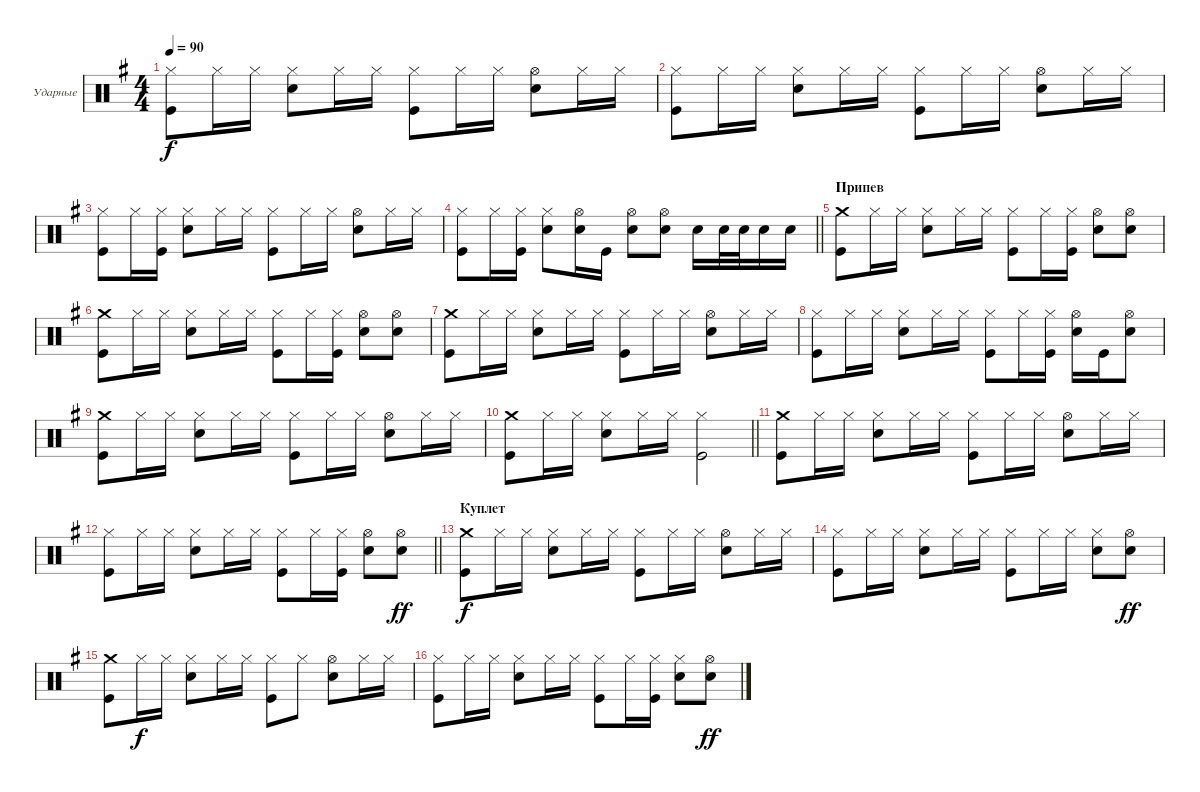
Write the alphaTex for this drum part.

\bracketExtendMode groupsimilarinstruments
\firstSystemTrackNameOrientation horizontal
\otherSystemsTrackNameOrientation horizontal
\track ("Александр Львов" "Ударные") {instrument percussion}
\staff {score}
\articulation defaults
\ts (4 4)
\tempo 90
\clef neutral
\ks eminor
("Hi-Hat (closed)" "Kick (hit)").8{dy f} "Hi-Hat (closed)".16 "Hi-Hat (closed)".16 ("Hi-Hat (closed)" "Snare (hit) 2").8 "Hi-Hat (closed)".16 "Hi-Hat (closed)".16 ("Hi-Hat (closed)" "Kick (hit)").8 "Hi-Hat (closed)".16 "Hi-Hat (closed)".16 ("Snare (hit) 2" "Hi-Hat (open)").8 "Hi-Hat (closed)".16 "Hi-Hat (closed)".16 |
("Hi-Hat (closed)" "Kick (hit)").8 "Hi-Hat (closed)".16 "Hi-Hat (closed)".16 ("Hi-Hat (closed)" "Snare (hit) 2").8 "Hi-Hat (closed)".16 "Hi-Hat (closed)".16 ("Hi-Hat (closed)" "Kick (hit)").8 "Hi-Hat (closed)".16 "Hi-Hat (closed)".16 ("Snare (hit) 2" "Hi-Hat (open)").8 "Hi-Hat (closed)".16 "Hi-Hat (closed)".16 |
("Hi-Hat (closed)" "Kick (hit)").8 "Hi-Hat (closed)".16 ("Hi-Hat (closed)" "Kick (hit)").16 ("Hi-Hat (closed)" "Snare (hit) 2").8 "Hi-Hat (closed)".16 "Hi-Hat (closed)".16 ("Hi-Hat (closed)" "Kick (hit)").8 "Hi-Hat (closed)".16 "Hi-Hat (closed)".16 ("Snare (hit) 2" "Hi-Hat (open)").8 "Hi-Hat (closed)".16 "Hi-Hat (closed)".16 |
\barLineRight lightlight
("Hi-Hat (closed)" "Kick (hit)").8 "Hi-Hat (closed)".16 ("Hi-Hat (closed)" "Kick (hit)").16 ("Hi-Hat (closed)" "Snare (hit) 2").8 ("Snare (hit) 2" "Hi-Hat (open)").16 "Kick (hit)".16 ("Hi-Hat (open)" "Snare (hit) 2").8 ("Hi-Hat (open)" "Snare (hit) 2").8 "Snare (hit) 2".16 "Snare (hit) 2".32 "Snare (hit) 2".32 "Snare (hit) 2".16 "Snare (hit) 2".16 |
\section ("" "Припев")
("Crash medium (hit)" "Kick (hit)").8 "Hi-Hat (closed)".16 "Hi-Hat (closed)".16 ("Hi-Hat (closed)" "Snare (hit) 2").8 "Hi-Hat (closed)".16 "Hi-Hat (closed)".16 ("Hi-Hat (closed)" "Kick (hit)").8 "Hi-Hat (closed)".16 ("Hi-Hat (closed)" "Kick (hit)").16 ("Snare (hit) 2" "Hi-Hat (open)").8 ("Hi-Hat (open)" "Snare (hit) 2").8 |
("Crash medium (hit)" "Kick (hit)").8 "Hi-Hat (closed)".16 "Hi-Hat (closed)".16 ("Hi-Hat (closed)" "Snare (hit) 2").8 "Hi-Hat (closed)".16 "Hi-Hat (closed)".16 ("Hi-Hat (closed)" "Kick (hit)").8 "Hi-Hat (closed)".16 ("Hi-Hat (closed)" "Kick (hit)").16 ("Snare (hit) 2" "Hi-Hat (open)").8 ("Hi-Hat (open)" "Snare (hit) 2").8 |
("Crash medium (hit)" "Kick (hit)").8 "Hi-Hat (closed)".16 "Hi-Hat (closed)".16 ("Hi-Hat (closed)" "Snare (hit) 2").8 "Hi-Hat (closed)".16 "Hi-Hat (closed)".16 ("Hi-Hat (closed)" "Kick (hit)").8 "Hi-Hat (closed)".16 "Hi-Hat (closed)".16 ("Snare (hit) 2" "Hi-Hat (open)").8 "Hi-Hat (closed)".16 "Hi-Hat (closed)".16 |
("Hi-Hat (closed)" "Kick (hit)").8 "Hi-Hat (closed)".16 "Hi-Hat (closed)".16 ("Hi-Hat (closed)" "Snare (hit) 2").8 "Hi-Hat (closed)".16 "Hi-Hat (closed)".16 ("Hi-Hat (closed)" "Kick (hit)").8 "Hi-Hat (closed)".16 ("Hi-Hat (closed)" "Kick (hit)").16 ("Snare (hit) 2" "Hi-Hat (open)").16 "Kick (hit)".16 ("Snare (hit) 2" "Hi-Hat (open)").8 |
("Crash medium (hit)" "Kick (hit)").8 "Hi-Hat (closed)".16 "Hi-Hat (closed)".16 ("Hi-Hat (closed)" "Snare (hit) 2").8 "Hi-Hat (closed)".16 "Hi-Hat (closed)".16 ("Hi-Hat (closed)" "Kick (hit)").8 "Hi-Hat (closed)".16 "Hi-Hat (closed)".16 ("Snare (hit) 2" "Hi-Hat (open)").8 "Hi-Hat (closed)".16 "Hi-Hat (closed)".16 |
\barLineRight lightlight
("Crash medium (hit)" "Kick (hit)").8 "Hi-Hat (closed)".16 "Hi-Hat (closed)".16 ("Hi-Hat (closed)" "Snare (hit) 2").8 "Hi-Hat (closed)".16 "Hi-Hat (closed)".16 ("Hi-Hat (closed)" "Kick (hit)").2 |
("Crash medium (hit)" "Kick (hit)").8 "Hi-Hat (closed)".16 "Hi-Hat (closed)".16 ("Hi-Hat (closed)" "Snare (hit) 2").8 "Hi-Hat (closed)".16 "Hi-Hat (closed)".16 ("Hi-Hat (closed)" "Kick (hit)").8 "Hi-Hat (closed)".16 "Hi-Hat (closed)".16 ("Snare (hit) 2" "Hi-Hat (open)").8 "Hi-Hat (closed)".16 "Hi-Hat (closed)".16 |
\barLineRight lightlight
("Hi-Hat (closed)" "Kick (hit)").8 "Hi-Hat (closed)".16 "Hi-Hat (closed)".16 ("Hi-Hat (closed)" "Snare (hit) 2").8 "Hi-Hat (closed)".16 "Hi-Hat (closed)".16 ("Hi-Hat (closed)" "Kick (hit)").8 "Hi-Hat (closed)".16 ("Hi-Hat (closed)" "Kick (hit)").16 ("Snare (hit) 2" "Hi-Hat (open)").8 ("Snare (hit) 2" "Hi-Hat (open)").8{dy ff} |
\section ("" "Куплет")
("Crash medium (hit)" "Kick (hit)").8{dy f} "Hi-Hat (closed)".16 "Hi-Hat (closed)".16 ("Hi-Hat (closed)" "Snare (hit) 2").8 "Hi-Hat (closed)".16 "Hi-Hat (closed)".16 ("Hi-Hat (closed)" "Kick (hit)").8 "Hi-Hat (closed)".16 "Hi-Hat (closed)".16 ("Snare (hit) 2" "Hi-Hat (open)").8 "Hi-Hat (closed)".16 "Hi-Hat (closed)".16 |
("Hi-Hat (closed)" "Kick (hit)").8 "Hi-Hat (closed)".16 "Hi-Hat (closed)".16 ("Hi-Hat (closed)" "Snare (hit) 2").8 "Hi-Hat (closed)".16 "Hi-Hat (closed)".16 ("Hi-Hat (closed)" "Kick (hit)").8 "Hi-Hat (closed)".16 "Hi-Hat (closed)".16 ("Snare (hit) 2" "Hi-Hat (closed)").8 ("Snare (hit) 2" "Hi-Hat (open)").8{dy ff} |
("Crash medium (hit)" "Kick (hit)").8 "Hi-Hat (closed)".16{dy f} "Hi-Hat (closed)".16 ("Hi-Hat (closed)" "Snare (hit) 2").8 "Hi-Hat (closed)".16 "Hi-Hat (closed)".16 ("Hi-Hat (closed)" "Kick (hit)").8 "Hi-Hat (closed)".8 ("Snare (hit) 2" "Hi-Hat (open)").8 "Hi-Hat (closed)".16 "Hi-Hat (closed)".16 |
("Hi-Hat (closed)" "Kick (hit)").8 "Hi-Hat (closed)".16 "Hi-Hat (closed)".16 ("Hi-Hat (closed)" "Snare (hit) 2").8 "Hi-Hat (closed)".16 "Hi-Hat (closed)".16 ("Hi-Hat (closed)" "Kick (hit)").8 "Hi-Hat (closed)".16 ("Hi-Hat (closed)" "Kick (hit)").16 ("Snare (hit) 2" "Hi-Hat (closed)").8 ("Snare (hit) 2" "Hi-Hat (open)").8{dy ff}
